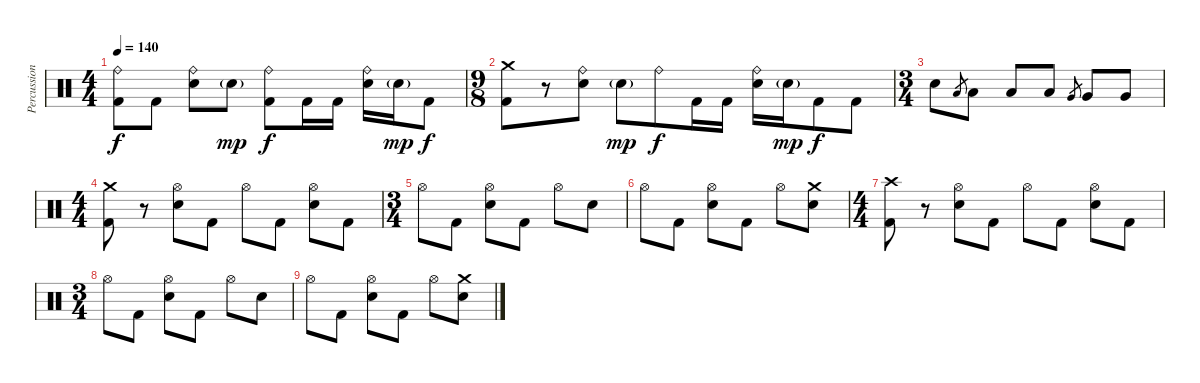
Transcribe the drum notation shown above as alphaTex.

\track ("Percussion" "Percussion") {instrument percussion}
\staff {score}
\articulation defaults
\ts (4 4)
\tempo 140
\clef neutral
\ks c
("Ride (bell)" "Kick (hit) 2").8{dy f} "Kick (hit) 2".8 ("Ride (bell)" "Snare (hit) 2").8 "Snare (hit) 2"{g}.8{dy mp} ("Ride (bell)" "Kick (hit) 2").8{dy f} "Kick (hit) 2".16 "Kick (hit) 2".16 ("Ride (bell)" "Snare (hit) 2").16 "Snare (hit) 2"{g}.16{dy mp} "Kick (hit) 2".8{dy f} |
\ts (9 8)
("Crash medium (hit)" "Kick (hit) 2").8 r.8 ("Ride (bell)" "Snare (hit) 2").8 "Snare (hit) 2"{g}.8{dy mp} "Ride (bell)".8{dy f} "Kick (hit) 2".16 "Kick (hit) 2".16 ("Ride (bell)" "Snare (hit) 2").16 "Snare (hit) 2"{g}.16{dy mp} "Kick (hit) 2".8{dy f} "Kick (hit) 2".8 |
\ts (3 4)
"Snare (hit) 2".8 "Low Tom (hit)".8{gr} "Low Tom (hit)".8 "Low Tom (hit)".8 "Low Tom (hit)".8 "Very Low Tom (hit)".8{gr} "Very Low Tom (hit)".8 "Very Low Tom (hit)".8 |
\ts (4 4)
("Crash medium (hit)" "Kick (hit) 2").8 r.8 ("Hi-Hat (open)" "Snare (hit) 2").8 "Kick (hit) 2".8 "Hi-Hat (open)".8 "Kick (hit) 2".8 ("Hi-Hat (open)" "Snare (hit) 2").8 "Kick (hit) 2".8 |
\ts (3 4)
"Hi-Hat (open)".8 "Kick (hit) 2".8 ("Hi-Hat (open)" "Snare (hit) 2").8 "Kick (hit) 2".8 "Hi-Hat (open)".8 "Snare (hit) 2".8 |
"Hi-Hat (open)".8 "Kick (hit) 2".8 ("Hi-Hat (open)" "Snare (hit) 2").8 "Kick (hit) 2".8 "Hi-Hat (open)".8 ("Crash medium (hit)" "Snare (hit) 2").8 |
\ts (4 4)
("Crash high (hit)" "Kick (hit) 2").8 r.8 ("Hi-Hat (open)" "Snare (hit) 2").8 "Kick (hit) 2".8 "Hi-Hat (open)".8 "Kick (hit) 2".8 ("Hi-Hat (open)" "Snare (hit) 2").8 "Kick (hit) 2".8 |
\ts (3 4)
"Hi-Hat (open)".8 "Kick (hit) 2".8 ("Hi-Hat (open)" "Snare (hit) 2").8 "Kick (hit) 2".8 "Hi-Hat (open)".8 "Snare (hit) 2".8 |
"Hi-Hat (open)".8 "Kick (hit) 2".8 ("Hi-Hat (open)" "Snare (hit) 2").8 "Kick (hit) 2".8 "Hi-Hat (open)".8 ("Crash medium (hit)" "Snare (hit) 2").8
